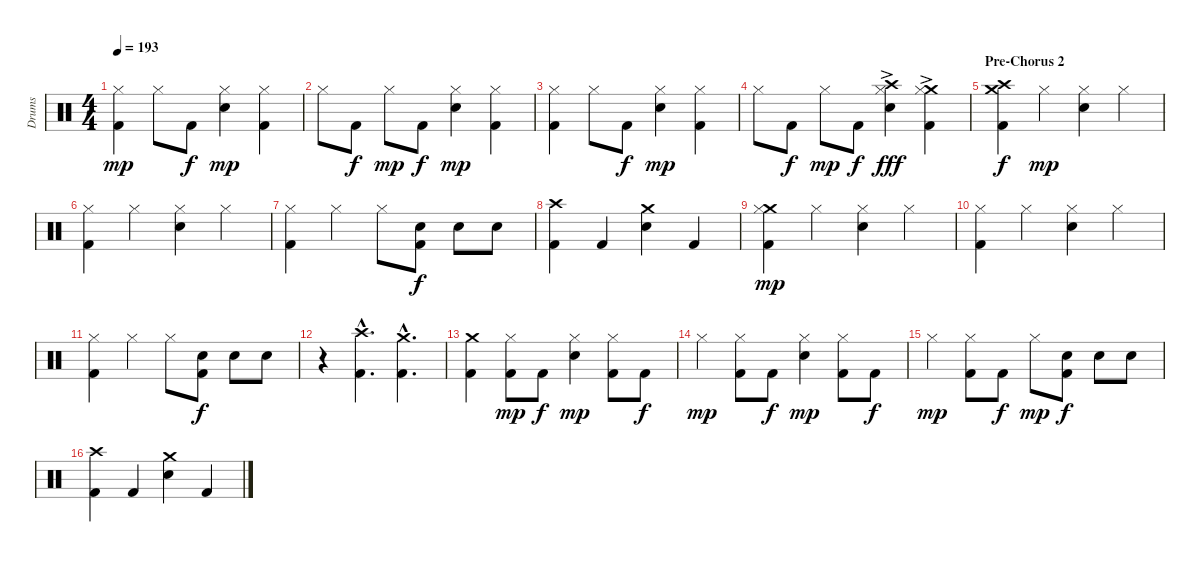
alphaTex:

\track ("Drums" "Drums") {instrument percussion}
\staff {score}
\articulation defaults
\ts (4 4)
\tempo 193
\clef neutral
\ks c
("Hi-Hat (closed)" "Kick (hit) 2").4{dy mp} "Hi-Hat (closed)".8 "Kick (hit) 2".8{dy f} ("Hi-Hat (closed)" "Snare (hit) 2").4{dy mp} ("Hi-Hat (closed)" "Kick (hit) 2").4 |
"Hi-Hat (closed)".8 "Kick (hit) 2".8{dy f} "Hi-Hat (closed)".8{dy mp} "Kick (hit) 2".8{dy f} ("Hi-Hat (closed)" "Snare (hit) 2").4{dy mp} ("Hi-Hat (closed)" "Kick (hit) 2").4 |
("Hi-Hat (closed)" "Kick (hit) 2").4 "Hi-Hat (closed)".8 "Kick (hit) 2".8{dy f} ("Hi-Hat (closed)" "Snare (hit) 2").4{dy mp} ("Hi-Hat (closed)" "Kick (hit) 2").4 |
"Hi-Hat (closed)".8 "Kick (hit) 2".8{dy f} "Hi-Hat (closed)".8{dy mp} "Kick (hit) 2".8{dy f} ("Crash high (hit)" "Hi-Hat (closed)" "Snare (hit) 2"{ac}).4{dy fff} ("Crash medium (hit)" "Hi-Hat (closed)" "Kick (hit) 2"{ac}).4 |
\section ("" "Pre-Chorus 2")
("Crash medium (hit)" "Crash high (hit)" "Kick (hit) 2").4{dy f} "Hi-Hat (closed)".4{dy mp} ("Hi-Hat (closed)" "Snare (hit) 2").4 "Hi-Hat (closed)".4 |
("Hi-Hat (closed)" "Kick (hit) 2").4 "Hi-Hat (closed)".4 ("Hi-Hat (closed)" "Snare (hit) 2").4 "Hi-Hat (closed)".4 |
("Hi-Hat (closed)" "Kick (hit) 2").4 "Hi-Hat (closed)".4 "Hi-Hat (closed)".8 ("Snare (hit) 2" "Kick (hit) 2").8{dy f} "Snare (hit) 2".8 "Snare (hit) 2".8 |
("Crash high (hit)" "Kick (hit) 2").4 "Kick (hit) 2".4 ("Crash medium (hit)" "Snare (hit) 2").4 "Kick (hit) 2".4 |
("Crash medium (hit)" "Hi-Hat (closed)" "Kick (hit) 2").4{dy mp} "Hi-Hat (closed)".4 ("Hi-Hat (closed)" "Snare (hit) 2").4 "Hi-Hat (closed)".4 |
("Hi-Hat (closed)" "Kick (hit) 2").4 "Hi-Hat (closed)".4 ("Hi-Hat (closed)" "Snare (hit) 2").4 "Hi-Hat (closed)".4 |
("Hi-Hat (closed)" "Kick (hit) 2").4 "Hi-Hat (closed)".4 "Hi-Hat (closed)".8 ("Snare (hit) 2" "Kick (hit) 2").8{dy f} "Snare (hit) 2".8 "Snare (hit) 2".8 |
r.4 ("Crash high (hit)"{hac} "Kick (hit) 2"{hac}).4{d} ("Crash medium (hit)"{hac} "Kick (hit) 2"{hac}).4{d} |
("Crash medium (hit)" "Kick (hit) 2").4 ("Hi-Hat (closed)" "Kick (hit) 2").8{dy mp} "Kick (hit) 2".8{dy f} ("Hi-Hat (closed)" "Snare (hit) 2").4{dy mp} ("Hi-Hat (closed)" "Kick (hit) 2").8 "Kick (hit) 2".8{dy f} |
"Hi-Hat (closed)".4{dy mp} ("Hi-Hat (closed)" "Kick (hit) 2").8 "Kick (hit) 2".8{dy f} ("Hi-Hat (closed)" "Snare (hit) 2").4{dy mp} ("Hi-Hat (closed)" "Kick (hit) 2").8 "Kick (hit) 2".8{dy f} |
"Hi-Hat (closed)".4{dy mp} ("Hi-Hat (closed)" "Kick (hit) 2").8 "Kick (hit) 2".8{dy f} "Hi-Hat (closed)".8{dy mp} ("Snare (hit) 2" "Kick (hit) 2").8{dy f} "Snare (hit) 2".8 "Snare (hit) 2".8 |
("Crash high (hit)" "Kick (hit) 2").4 "Kick (hit) 2".4 ("Crash medium (hit)" "Snare (hit) 2").4 "Kick (hit) 2".4
